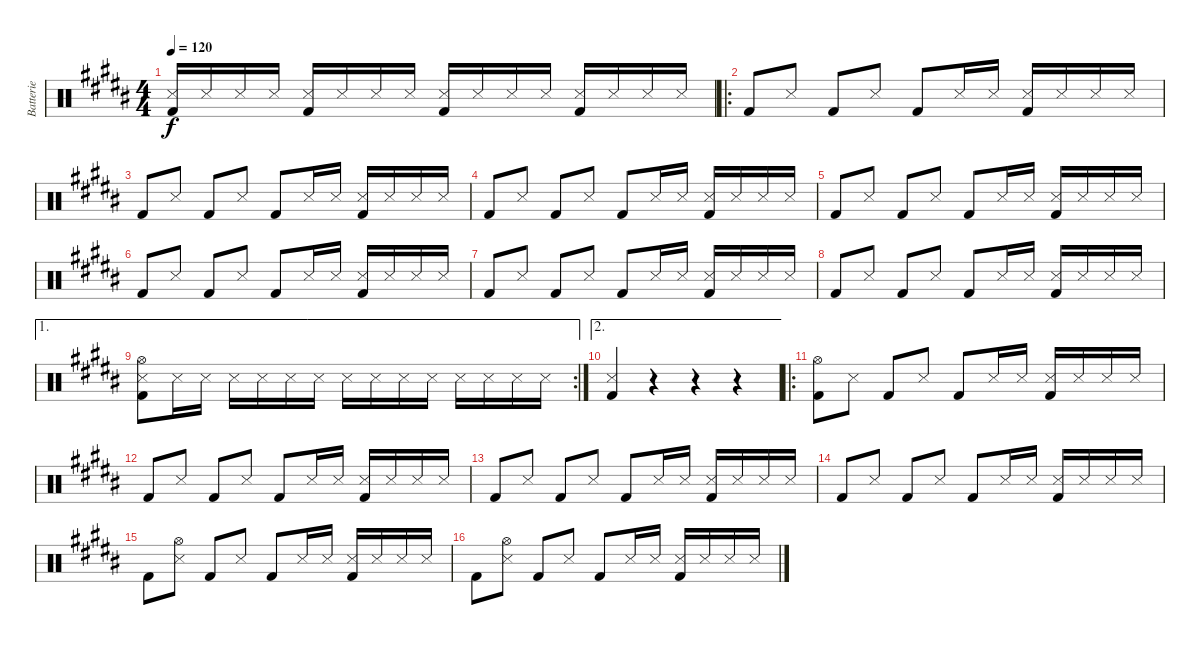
\track ("Batterie" "Batterie") {instrument percussion}
\staff {score}
\articulation defaults
\ts (4 4)
\tempo 120
\clef neutral
\ks b
("Snare (side stick) 3" "Kick (hit) 2").16{dy f} "Snare (side stick) 3".16 "Snare (side stick) 3".16 "Snare (side stick) 3".16 ("Snare (side stick) 3" "Kick (hit) 2").16 "Snare (side stick) 3".16 "Snare (side stick) 3".16 "Snare (side stick) 3".16 ("Snare (side stick) 3" "Kick (hit) 2").16 "Snare (side stick) 3".16 "Snare (side stick) 3".16 "Snare (side stick) 3".16 ("Snare (side stick) 3" "Kick (hit) 2").16 "Snare (side stick) 3".16 "Snare (side stick) 3".16 "Snare (side stick) 3".16 |
\ro "Kick (hit) 2".8 "Snare (side stick) 3".8 "Kick (hit) 2".8 "Snare (side stick) 3".8 "Kick (hit) 2".8 "Snare (side stick) 3".16 "Snare (side stick) 3".16
("Snare (side stick) 3" "Kick (hit) 2").16 "Snare (side stick) 3".16 "Snare (side stick) 3".16 "Snare (side stick) 3".16 |
"Kick (hit) 2".8 "Snare (side stick) 3".8 "Kick (hit) 2".8 "Snare (side stick) 3".8 "Kick (hit) 2".8 "Snare (side stick) 3".16 "Snare (side stick) 3".16 ("Snare (side stick) 3" "Kick (hit) 2").16 "Snare (side stick) 3".16 "Snare (side stick) 3".16 "Snare (side stick) 3".16 |
"Kick (hit) 2".8 "Snare (side stick) 3".8 "Kick (hit) 2".8 "Snare (side stick) 3".8 "Kick (hit) 2".8 "Snare (side stick) 3".16 "Snare (side stick) 3".16 ("Snare (side stick) 3" "Kick (hit) 2").16 "Snare (side stick) 3".16 "Snare (side stick) 3".16 "Snare (side stick) 3".16 |
"Kick (hit) 2".8 "Snare (side stick) 3".8 "Kick (hit) 2".8 "Snare (side stick) 3".8 "Kick (hit) 2".8 "Snare (side stick) 3".16 "Snare (side stick) 3".16 ("Snare (side stick) 3" "Kick (hit) 2").16 "Snare (side stick) 3".16 "Snare (side stick) 3".16 "Snare (side stick) 3".16 |
"Kick (hit) 2".8 "Snare (side stick) 3".8 "Kick (hit) 2".8 "Snare (side stick) 3".8 "Kick (hit) 2".8 "Snare (side stick) 3".16 "Snare (side stick) 3".16 ("Snare (side stick) 3" "Kick (hit) 2").16 "Snare (side stick) 3".16 "Snare (side stick) 3".16 "Snare (side stick) 3".16 |
"Kick (hit) 2".8 "Snare (side stick) 3".8 "Kick (hit) 2".8 "Snare (side stick) 3".8 "Kick (hit) 2".8 "Snare (side stick) 3".16 "Snare (side stick) 3".16 ("Snare (side stick) 3" "Kick (hit) 2").16 "Snare (side stick) 3".16 "Snare (side stick) 3".16 "Snare (side stick) 3".16 |
"Kick (hit) 2".8 "Snare (side stick) 3".8 "Kick (hit) 2".8 "Snare (side stick) 3".8 "Kick (hit) 2".8 "Snare (side stick) 3".16 "Snare (side stick) 3".16 ("Snare (side stick) 3" "Kick (hit) 2").16 "Snare (side stick) 3".16 "Snare (side stick) 3".16 "Snare (side stick) 3".16 |
\ae 1
\rc 2
("Hi-Hat (open)" "Snare (side stick) 3" "Kick (hit) 2").8 "Snare (side stick) 3".16 "Snare (side stick) 3".16 "Snare (side stick) 3".16 "Snare (side stick) 3".16 "Snare (side stick) 3".16 "Snare (side stick) 3".16 "Snare (side stick) 3".16 "Snare (side stick) 3".16 "Snare (side stick) 3".16 "Snare (side stick) 3".16 "Snare (side stick) 3".16 "Snare (side stick) 3".16 "Snare (side stick) 3".16 "Snare (side stick) 3".16 |
\ae 2
("Snare (side stick) 3" "Kick (hit) 2").4 r.4 r.4 r.4 |
\ro
("Hi-Hat (open)" "Kick (hit) 2").8 "Snare (side stick) 3".8 "Kick (hit) 2".8 "Snare (side stick) 3".8 "Kick (hit) 2".8 "Snare (side stick) 3".16 "Snare (side stick) 3".16 ("Snare (side stick) 3" "Kick (hit) 2").16 "Snare (side stick) 3".16 "Snare (side stick) 3".16 "Snare (side stick) 3".16 |
"Kick (hit) 2".8 "Snare (side stick) 3".8 "Kick (hit) 2".8 "Snare (side stick) 3".8 "Kick (hit) 2".8 "Snare (side stick) 3".16 "Snare (side stick) 3".16 ("Snare (side stick) 3" "Kick (hit) 2").16 "Snare (side stick) 3".16 "Snare (side stick) 3".16 "Snare (side stick) 3".16 |
"Kick (hit) 2".8 "Snare (side stick) 3".8 "Kick (hit) 2".8 "Snare (side stick) 3".8 "Kick (hit) 2".8 "Snare (side stick) 3".16 "Snare (side stick) 3".16 ("Snare (side stick) 3" "Kick (hit) 2").16 "Snare (side stick) 3".16 "Snare (side stick) 3".16 "Snare (side stick) 3".16 |
"Kick (hit) 2".8 "Snare (side stick) 3".8 "Kick (hit) 2".8 "Snare (side stick) 3".8 "Kick (hit) 2".8 "Snare (side stick) 3".16 "Snare (side stick) 3".16 ("Snare (side stick) 3" "Kick (hit) 2").16 "Snare (side stick) 3".16 "Snare (side stick) 3".16 "Snare (side stick) 3".16 |
"Kick (hit) 2".8 ("Hi-Hat (open)" "Snare (side stick) 3").8 "Kick (hit) 2".8 "Snare (side stick) 3".8 "Kick (hit) 2".8 "Snare (side stick) 3".16 "Snare (side stick) 3".16 ("Snare (side stick) 3" "Kick (hit) 2").16 "Snare (side stick) 3".16 "Snare (side stick) 3".16 "Snare (side stick) 3".16 |
"Kick (hit) 2".8 ("Hi-Hat (open)" "Snare (side stick) 3").8 "Kick (hit) 2".8 "Snare (side stick) 3".8 "Kick (hit) 2".8 "Snare (side stick) 3".16 "Snare (side stick) 3".16 ("Snare (side stick) 3" "Kick (hit) 2").16 "Snare (side stick) 3".16 "Snare (side stick) 3".16 "Snare (side stick) 3".16
